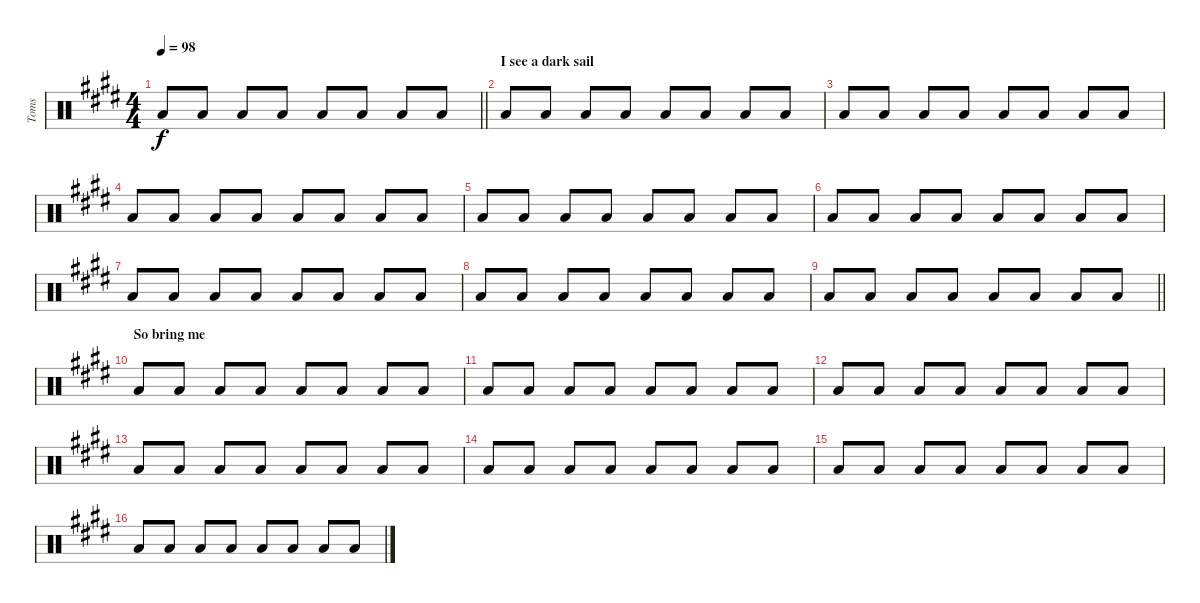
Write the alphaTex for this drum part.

\track ("Toms" "Toms") {instrument percussion}
\staff {score}
\articulation defaults
\ts (4 4)
\tempo 98
\clef neutral
\barLineRight lightlight
\ks c#minor "Low Tom (hit)".8{dy f} "Low Floor Tom (hit)".8 "Low Floor Tom (hit)".8 "Low Floor Tom (hit)".8 "Low Tom (hit)".8 "Low Floor Tom (hit)".8 "Low Floor Tom (hit)".8 "Low Floor Tom (hit)".8
|
\section ("" "I see a dark sail")
"Low Tom (hit)".8 "Low Floor Tom (hit)".8 "Low Floor Tom (hit)".8 "Low Floor Tom (hit)".8 "Low Tom (hit)".8 "Low Floor Tom (hit)".8 "Low Floor Tom (hit)".8 "Low Floor Tom (hit)".8 |
"Low Tom (hit)".8 "Low Floor Tom (hit)".8 "Low Floor Tom (hit)".8 "Low Floor Tom (hit)".8 "Low Tom (hit)".8 "Low Floor Tom (hit)".8 "Low Floor Tom (hit)".8 "Low Floor Tom (hit)".8 |
"Low Tom (hit)".8 "Low Floor Tom (hit)".8 "Low Floor Tom (hit)".8 "Low Floor Tom (hit)".8 "Low Tom (hit)".8 "Low Floor Tom (hit)".8 "Low Floor Tom (hit)".8 "Low Floor Tom (hit)".8 |
"Low Tom (hit)".8 "Low Floor Tom (hit)".8 "Low Floor Tom (hit)".8 "Low Floor Tom (hit)".8 "Low Tom (hit)".8 "Low Floor Tom (hit)".8 "Low Floor Tom (hit)".8 "Low Floor Tom (hit)".8 |
"Low Tom (hit)".8 "Low Floor Tom (hit)".8 "Low Floor Tom (hit)".8 "Low Floor Tom (hit)".8 "Low Tom (hit)".8 "Low Floor Tom (hit)".8 "Low Floor Tom (hit)".8 "Low Floor Tom (hit)".8 |
"Low Tom (hit)".8 "Low Floor Tom (hit)".8 "Low Floor Tom (hit)".8 "Low Floor Tom (hit)".8 "Low Tom (hit)".8 "Low Floor Tom (hit)".8 "Low Floor Tom (hit)".8 "Low Floor Tom (hit)".8 |
"Low Tom (hit)".8 "Low Floor Tom (hit)".8 "Low Floor Tom (hit)".8 "Low Floor Tom (hit)".8 "Low Tom (hit)".8 "Low Floor Tom (hit)".8 "Low Floor Tom (hit)".8 "Low Floor Tom (hit)".8 |
\barLineRight lightlight "Low Tom (hit)".8 "Low Floor Tom (hit)".8 "Low Floor Tom (hit)".8 "Low Floor Tom (hit)".8 "Low Tom (hit)".8 "Low Floor Tom (hit)".8 "Low Floor Tom (hit)".8 "Low Floor Tom (hit)".8
|
\section ("" "So bring me ")
"Low Tom (hit)".8 "Low Floor Tom (hit)".8 "Low Floor Tom (hit)".8 "Low Floor Tom (hit)".8 "Low Tom (hit)".8 "Low Floor Tom (hit)".8 "Low Floor Tom (hit)".8 "Low Floor Tom (hit)".8 |
"Low Tom (hit)".8 "Low Floor Tom (hit)".8 "Low Floor Tom (hit)".8 "Low Floor Tom (hit)".8 "Low Tom (hit)".8 "Low Floor Tom (hit)".8 "Low Floor Tom (hit)".8 "Low Floor Tom (hit)".8 |
"Low Tom (hit)".8 "Low Floor Tom (hit)".8 "Low Floor Tom (hit)".8 "Low Floor Tom (hit)".8 "Low Tom (hit)".8 "Low Floor Tom (hit)".8 "Low Floor Tom (hit)".8 "Low Floor Tom (hit)".8 |
"Low Tom (hit)".8 "Low Floor Tom (hit)".8 "Low Floor Tom (hit)".8 "Low Floor Tom (hit)".8 "Low Tom (hit)".8 "Low Floor Tom (hit)".8 "Low Floor Tom (hit)".8 "Low Floor Tom (hit)".8 |
"Low Tom (hit)".8 "Low Floor Tom (hit)".8 "Low Floor Tom (hit)".8 "Low Floor Tom (hit)".8 "Low Tom (hit)".8 "Low Floor Tom (hit)".8 "Low Floor Tom (hit)".8 "Low Floor Tom (hit)".8 |
"Low Tom (hit)".8 "Low Floor Tom (hit)".8 "Low Floor Tom (hit)".8 "Low Floor Tom (hit)".8 "Low Tom (hit)".8 "Low Floor Tom (hit)".8 "Low Floor Tom (hit)".8 "Low Floor Tom (hit)".8 |
"Low Tom (hit)".8 "Low Floor Tom (hit)".8 "Low Floor Tom (hit)".8 "Low Floor Tom (hit)".8 "Low Tom (hit)".8 "Low Floor Tom (hit)".8 "Low Floor Tom (hit)".8 "Low Floor Tom (hit)".8
